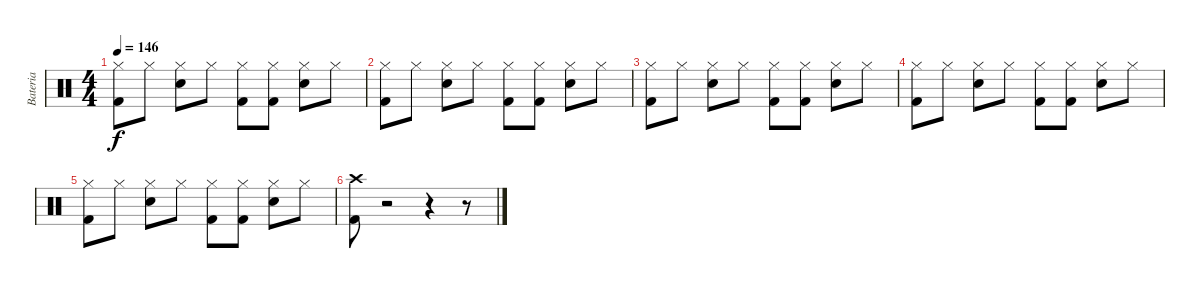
\track ("Bateria" "Bateria") {instrument percussion}
\staff {score}
\articulation defaults
\ts (4 4)
\tempo 146
\clef neutral
\ks c
("Kick (hit) 2" "Hi-Hat (closed)").8{dy f} "Hi-Hat (closed)".8 ("Electric Snare (hit)" "Hi-Hat (closed)").8 "Hi-Hat (closed)".8 ("Kick (hit) 2" "Hi-Hat (closed)").8 ("Hi-Hat (closed)" "Kick (hit) 2").8 ("Hi-Hat (closed)" "Electric Snare (hit)").8 "Hi-Hat (closed)".8 |
("Kick (hit) 2" "Hi-Hat (closed)").8 "Hi-Hat (closed)".8 ("Electric Snare (hit)" "Hi-Hat (closed)").8 "Hi-Hat (closed)".8 ("Kick (hit) 2" "Hi-Hat (closed)").8 ("Hi-Hat (closed)" "Kick (hit) 2").8 ("Hi-Hat (closed)" "Electric Snare (hit)").8 "Hi-Hat (closed)".8 |
("Kick (hit) 2" "Hi-Hat (closed)").8 "Hi-Hat (closed)".8 ("Electric Snare (hit)" "Hi-Hat (closed)").8 "Hi-Hat (closed)".8 ("Kick (hit) 2" "Hi-Hat (closed)").8 ("Hi-Hat (closed)" "Kick (hit) 2").8 ("Hi-Hat (closed)" "Electric Snare (hit)").8 "Hi-Hat (closed)".8 |
("Kick (hit) 2" "Hi-Hat (closed)").8 "Hi-Hat (closed)".8 ("Electric Snare (hit)" "Hi-Hat (closed)").8 "Hi-Hat (closed)".8 ("Kick (hit) 2" "Hi-Hat (closed)").8 ("Hi-Hat (closed)" "Kick (hit) 2").8 ("Hi-Hat (closed)" "Electric Snare (hit)").8 "Hi-Hat (closed)".8 |
("Kick (hit) 2" "Hi-Hat (closed)").8 "Hi-Hat (closed)".8 ("Electric Snare (hit)" "Hi-Hat (closed)").8 "Hi-Hat (closed)".8 ("Kick (hit) 2" "Hi-Hat (closed)").8 ("Kick (hit) 2" "Hi-Hat (closed)").8 ("Hi-Hat (closed)" "Electric Snare (hit)").8 "Hi-Hat (closed)".8 |
("Crash high (hit)" "Kick (hit) 2").8 r.2 r.4 r.8
